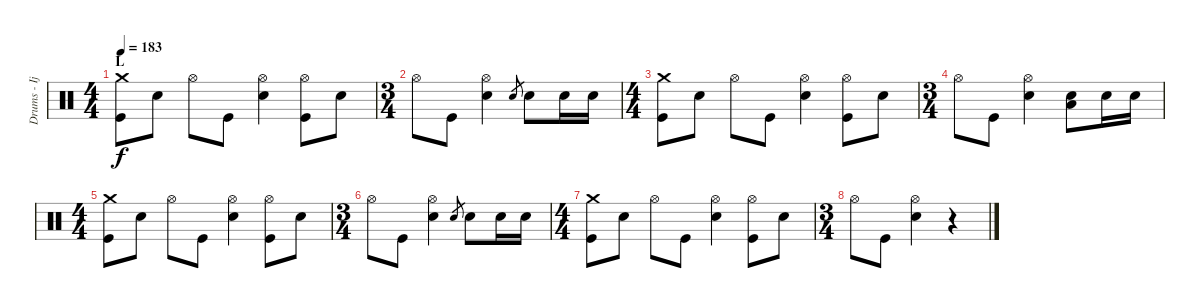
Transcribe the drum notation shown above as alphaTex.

\track ("Drums - Ijichi" "Drums - Ij") {instrument percussion}
\staff {score}
\articulation defaults
\ts (4 4)
\section ("" "L")
\tempo 183
\clef neutral
\ks c
("Crash medium (hit)" "Kick (hit)").8{dy f} "Electric Snare (hit)".8 "Hi-Hat (open)".8 "Kick (hit)".8 ("Hi-Hat (open)" "Electric Snare (hit)").4 ("Hi-Hat (open)" "Kick (hit)").8 "Electric Snare (hit)".8 |
\ts (3 4)
"Hi-Hat (open)".8 "Kick (hit)".8 ("Hi-Hat (open)" "Electric Snare (hit)").4 "Electric Snare (hit)".8{gr} "Electric Snare (hit)".8 "Electric Snare (hit)".16 "Electric Snare (hit)".16 |
\ts (4 4)
("Crash medium (hit)" "Kick (hit)").8 "Electric Snare (hit)".8 "Hi-Hat (open)".8 "Kick (hit)".8 ("Hi-Hat (open)" "Electric Snare (hit)").4 ("Hi-Hat (open)" "Kick (hit)").8 "Electric Snare (hit)".8 |
\ts (3 4)
"Hi-Hat (open)".8 "Kick (hit)".8 ("Hi-Hat (open)" "Electric Snare (hit)").4 ("Electric Snare (hit)" "Low Tom (hit)").8 "Electric Snare (hit)".16 "Electric Snare (hit)".16 |
\ts (4 4)
("Crash medium (hit)" "Kick (hit)").8 "Electric Snare (hit)".8 "Hi-Hat (open)".8 "Kick (hit)".8 ("Hi-Hat (open)" "Electric Snare (hit)").4 ("Hi-Hat (open)" "Kick (hit)").8 "Electric Snare (hit)".8 |
\ts (3 4)
"Hi-Hat (open)".8 "Kick (hit)".8 ("Hi-Hat (open)" "Electric Snare (hit)").4 "Electric Snare (hit)".8{gr} "Electric Snare (hit)".8 "Electric Snare (hit)".16 "Electric Snare (hit)".16 |
\ts (4 4)
("Crash medium (hit)" "Kick (hit)").8 "Electric Snare (hit)".8 "Hi-Hat (open)".8 "Kick (hit)".8 ("Hi-Hat (open)" "Electric Snare (hit)").4 ("Hi-Hat (open)" "Kick (hit)").8 "Electric Snare (hit)".8 |
\ts (3 4)
"Hi-Hat (open)".8 "Kick (hit)".8 ("Hi-Hat (open)" "Electric Snare (hit)").4 r.4
